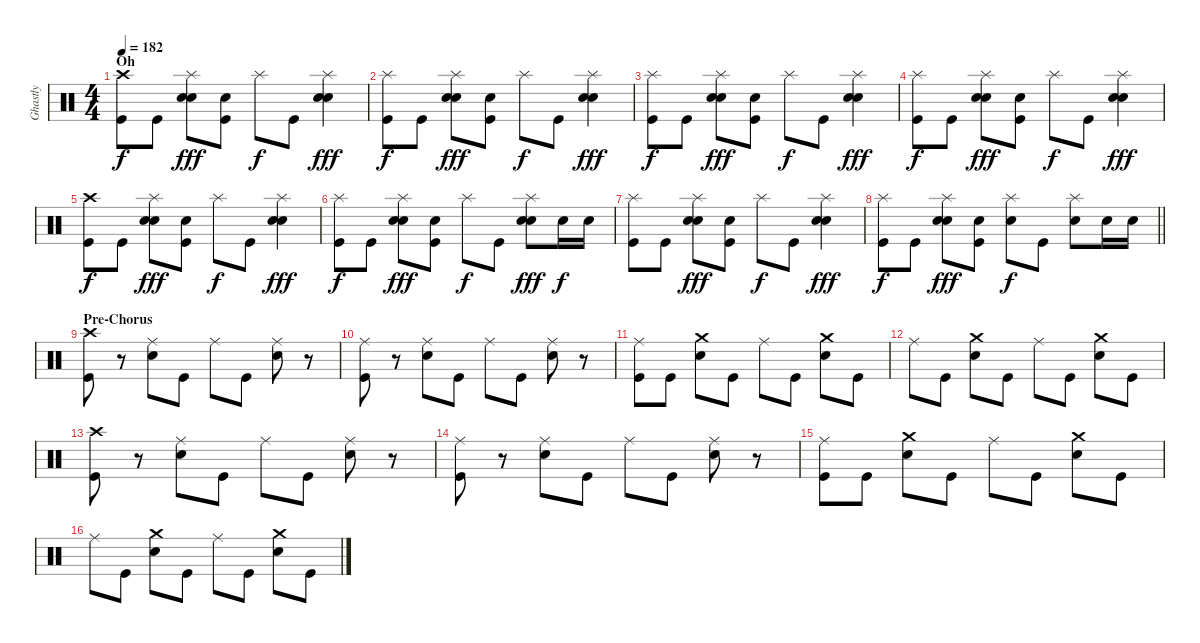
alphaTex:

\track ("Ghastly" "Ghastly") {instrument percussion}
\staff {score}
\articulation defaults
\ts (4 4)
\section ("" "Oh")
\tempo 182
\clef neutral
\ks c
("Crash high (hit)" "Kick (hit)").8{dy f} "Kick (hit)".8 ("Splash (hit)" "Hand Clap (hit)" "Electric Snare (hit)").8{dy fff} ("Hand Clap (hit)" "Kick (hit)").8 "Splash (hit)".8{dy f} "Kick (hit)".8 ("Splash (hit)" "Hand Clap (hit)" "Electric Snare (hit)").4{dy fff} |
("Splash (hit)" "Kick (hit)").8{dy f} "Kick (hit)".8 ("Splash (hit)" "Hand Clap (hit)" "Electric Snare (hit)").8{dy fff} ("Hand Clap (hit)" "Kick (hit)").8 "Splash (hit)".8{dy f} "Kick (hit)".8 ("Splash (hit)" "Hand Clap (hit)" "Electric Snare (hit)").4{dy fff} |
("Splash (hit)" "Kick (hit)").8{dy f} "Kick (hit)".8 ("Splash (hit)" "Hand Clap (hit)" "Electric Snare (hit)").8{dy fff} ("Hand Clap (hit)" "Kick (hit)").8 "Splash (hit)".8{dy f} "Kick (hit)".8 ("Splash (hit)" "Hand Clap (hit)" "Electric Snare (hit)").4{dy fff} |
("Splash (hit)" "Kick (hit)").8{dy f} "Kick (hit)".8 ("Splash (hit)" "Hand Clap (hit)" "Electric Snare (hit)").8{dy fff} ("Hand Clap (hit)" "Kick (hit)").8 "Splash (hit)".8{dy f} "Kick (hit)".8 ("Splash (hit)" "Hand Clap (hit)" "Electric Snare (hit)").4{dy fff} |
("Crash high (hit)" "Kick (hit)").8{dy f} "Kick (hit)".8 ("Splash (hit)" "Hand Clap (hit)" "Electric Snare (hit)").8{dy fff} ("Hand Clap (hit)" "Kick (hit)").8 "Splash (hit)".8{dy f} "Kick (hit)".8 ("Splash (hit)" "Hand Clap (hit)" "Electric Snare (hit)").4{dy fff} |
("Splash (hit)" "Kick (hit)").8{dy f} "Kick (hit)".8 ("Splash (hit)" "Hand Clap (hit)" "Electric Snare (hit)").8{dy fff} ("Hand Clap (hit)" "Kick (hit)").8 "Splash (hit)".8{dy f} "Kick (hit)".8 ("Splash (hit)" "Hand Clap (hit)" "Electric Snare (hit)").8{dy fff} "Electric Snare (hit)".16{dy f} "Electric Snare (hit)".16 |
("Splash (hit)" "Kick (hit)").8 "Kick (hit)".8 ("Splash (hit)" "Hand Clap (hit)" "Electric Snare (hit)").8{dy fff} ("Hand Clap (hit)" "Kick (hit)").8 "Splash (hit)".8{dy f} "Kick (hit)".8 ("Splash (hit)" "Hand Clap (hit)" "Electric Snare (hit)").4{dy fff} |
\barLineRight lightlight
("Splash (hit)" "Kick (hit)").8{dy f} "Kick (hit)".8 ("Splash (hit)" "Hand Clap (hit)" "Electric Snare (hit)").8{dy fff} ("Hand Clap (hit)" "Kick (hit)").8 ("Splash (hit)" "Electric Snare (hit)").8{dy f} "Kick (hit)".8 ("Splash (hit)" "Electric Snare (hit)").8 "Electric Snare (hit)".16 "Electric Snare (hit)".16 |
\section ("" "Pre-Chorus")
("Crash high (hit)" "Kick (hit)").8 r.8 ("Ride (middle)" "Electric Snare (hit)").8 "Kick (hit)".8 "Ride (middle)".8 "Kick (hit)".8 ("Ride (middle)" "Electric Snare (hit)").8 r.8 |
("Ride (middle)" "Kick (hit)").8 r.8 ("Ride (middle)" "Electric Snare (hit)").8 "Kick (hit)".8 "Ride (middle)".8 "Kick (hit)".8 ("Ride (middle)" "Electric Snare (hit)").8 r.8 |
("Ride (middle)" "Kick (hit)").8 "Kick (hit)".8 ("Crash medium (hit)" "Electric Snare (hit)").8 "Kick (hit)".8 "Ride (middle)".8 "Kick (hit)".8 ("Crash medium (hit)" "Electric Snare (hit)").8 "Kick (hit)".8 |
"Ride (middle)".8 "Kick (hit)".8 ("Crash medium (hit)" "Electric Snare (hit)").8 "Kick (hit)".8 "Ride (middle)".8 "Kick (hit)".8 ("Crash medium (hit)" "Electric Snare (hit)").8 "Kick (hit)".8 |
("Crash high (hit)" "Kick (hit)").8 r.8 ("Ride (middle)" "Electric Snare (hit)").8 "Kick (hit)".8 "Ride (middle)".8 "Kick (hit)".8 ("Ride (middle)" "Electric Snare (hit)").8 r.8 |
("Ride (middle)" "Kick (hit)").8 r.8 ("Ride (middle)" "Electric Snare (hit)").8 "Kick (hit)".8 "Ride (middle)".8 "Kick (hit)".8 ("Ride (middle)" "Electric Snare (hit)").8 r.8 |
("Ride (middle)" "Kick (hit)").8 "Kick (hit)".8 ("Crash medium (hit)" "Electric Snare (hit)").8 "Kick (hit)".8 "Ride (middle)".8 "Kick (hit)".8 ("Crash medium (hit)" "Electric Snare (hit)").8 "Kick (hit)".8 |
"Ride (middle)".8 "Kick (hit)".8 ("Crash medium (hit)" "Electric Snare (hit)").8 "Kick (hit)".8 "Ride (middle)".8 "Kick (hit)".8 ("Crash medium (hit)" "Electric Snare (hit)").8 "Kick (hit)".8
